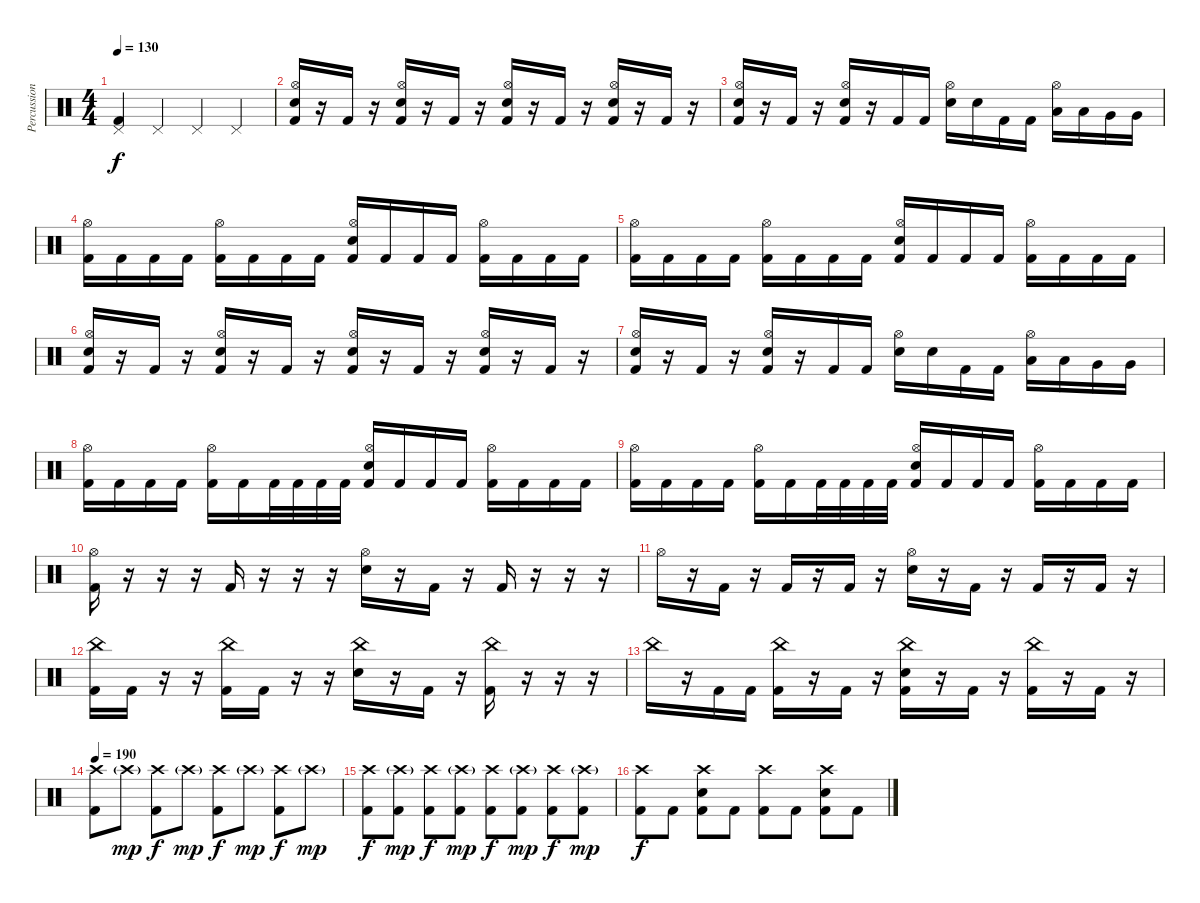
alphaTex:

\track ("Percussion" "Percussion") {instrument percussion}
\staff {score}
\articulation defaults
\ts (4 4)
\tempo 130
\clef neutral
\ks c
("Pedal Hi-Hat (hit)" "Kick (hit) 2").4{dy f} "Pedal Hi-Hat (hit)".4 "Pedal Hi-Hat (hit)".4 "Pedal Hi-Hat (hit)".4 |
("Hi-Hat (open)" "Snare (hit) 2" "Kick (hit) 2").16 r.16 "Kick (hit) 2".16 r.16 ("Hi-Hat (open)" "Snare (hit) 2" "Kick (hit) 2").16 r.16 "Kick (hit) 2".16 r.16 ("Hi-Hat (open)" "Snare (hit) 2" "Kick (hit) 2").16 r.16 "Kick (hit) 2".16 r.16 ("Hi-Hat (open)" "Snare (hit) 2" "Kick (hit) 2").16 r.16 "Kick (hit) 2".16 r.16 |
("Hi-Hat (open)" "Snare (hit) 2" "Kick (hit) 2").16 r.16 "Kick (hit) 2".16 r.16 ("Hi-Hat (open)" "Snare (hit) 2" "Kick (hit) 2").16 r.16 "Kick (hit) 2".16 "Kick (hit) 2".16 ("Hi-Hat (open)" "Snare (hit) 2").16 "Snare (hit) 2".16 "Kick (hit) 2".16 "Kick (hit) 2".16 ("Hi-Hat (open)" "Low Tom (hit)").16 "Low Tom (hit)".16 "Very Low Tom (hit)".16 "Very Low Tom (hit)".16 |
("Hi-Hat (open)" "Kick (hit) 2").16 "Kick (hit) 2".16 "Kick (hit) 2".16 "Kick (hit) 2".16 ("Hi-Hat (open)" "Kick (hit) 2").16 "Kick (hit) 2".16 "Kick (hit) 2".16 "Kick (hit) 2".16 ("Hi-Hat (open)" "Snare (hit) 2" "Kick (hit) 2").16 "Kick (hit) 2".16 "Kick (hit) 2".16 "Kick (hit) 2".16 ("Hi-Hat (open)" "Kick (hit) 2").16 "Kick (hit) 2".16 "Kick (hit) 2".16 "Kick (hit) 2".16 |
("Hi-Hat (open)" "Kick (hit) 2").16 "Kick (hit) 2".16 "Kick (hit) 2".16 "Kick (hit) 2".16 ("Hi-Hat (open)" "Kick (hit) 2").16 "Kick (hit) 2".16 "Kick (hit) 2".16 "Kick (hit) 2".16 ("Hi-Hat (open)" "Snare (hit) 2" "Kick (hit) 2").16 "Kick (hit) 2".16 "Kick (hit) 2".16 "Kick (hit) 2".16 ("Hi-Hat (open)" "Kick (hit) 2").16 "Kick (hit) 2".16 "Kick (hit) 2".16 "Kick (hit) 2".16 |
("Hi-Hat (open)" "Snare (hit) 2" "Kick (hit) 2").16 r.16 "Kick (hit) 2".16 r.16 ("Hi-Hat (open)" "Snare (hit) 2" "Kick (hit) 2").16 r.16 "Kick (hit) 2".16 r.16 ("Hi-Hat (open)" "Snare (hit) 2" "Kick (hit) 2").16 r.16 "Kick (hit) 2".16 r.16 ("Hi-Hat (open)" "Snare (hit) 2" "Kick (hit) 2").16 r.16 "Kick (hit) 2".16 r.16 |
("Hi-Hat (open)" "Snare (hit) 2" "Kick (hit) 2").16 r.16 "Kick (hit) 2".16 r.16 ("Hi-Hat (open)" "Snare (hit) 2" "Kick (hit) 2").16 r.16 "Kick (hit) 2".16 "Kick (hit) 2".16 ("Hi-Hat (open)" "Snare (hit) 2").16 "Snare (hit) 2".16 "Kick (hit) 2".16 "Kick (hit) 2".16 ("Hi-Hat (open)" "Low Tom (hit)").16 "Low Tom (hit)".16 "Very Low Tom (hit)".16 "Very Low Tom (hit)".16 |
("Hi-Hat (open)" "Kick (hit) 2").16 "Kick (hit) 2".16 "Kick (hit) 2".16 "Kick (hit) 2".16 ("Hi-Hat (open)" "Kick (hit) 2").16 "Kick (hit) 2".16 "Kick (hit) 2".32 "Kick (hit) 2".32 "Kick (hit) 2".32 "Kick (hit) 2".32 ("Hi-Hat (open)" "Snare (hit) 2" "Kick (hit) 2").16 "Kick (hit) 2".16 "Kick (hit) 2".16 "Kick (hit) 2".16 ("Hi-Hat (open)" "Kick (hit) 2").16 "Kick (hit) 2".16 "Kick (hit) 2".16 "Kick (hit) 2".16 |
("Hi-Hat (open)" "Kick (hit) 2").16 "Kick (hit) 2".16 "Kick (hit) 2".16 "Kick (hit) 2".16 ("Hi-Hat (open)" "Kick (hit) 2").16 "Kick (hit) 2".16 "Kick (hit) 2".32 "Kick (hit) 2".32 "Kick (hit) 2".32 "Kick (hit) 2".32 ("Hi-Hat (open)" "Snare (hit) 2" "Kick (hit) 2").16 "Kick (hit) 2".16 "Kick (hit) 2".16 "Kick (hit) 2".16 ("Hi-Hat (open)" "Kick (hit) 2").16 "Kick (hit) 2".16 "Kick (hit) 2".16 "Kick (hit) 2".16 |
("Hi-Hat (open)" "Kick (hit) 2").16 r.16 r.16 r.16 "Kick (hit) 2".16 r.16 r.16 r.16 ("Hi-Hat (open)" "Snare (hit) 2").16 r.16 "Kick (hit) 2".16 r.16 "Kick (hit) 2".16 r.16 r.16 r.16 |
"Hi-Hat (open)".16 r.16 "Kick (hit) 2".16 r.16 "Kick (hit) 2".16 r.16 "Kick (hit) 2".16 r.16 ("Hi-Hat (open)" "Snare (hit) 2").16 r.16 "Kick (hit) 2".16 r.16 "Kick (hit) 2".16 r.16 "Kick (hit) 2".16 r.16 |
("China (hit)" "Kick (hit) 2").16 "Kick (hit) 2".16 r.16 r.16 ("China (hit)" "Kick (hit) 2").16 "Kick (hit) 2".16 r.16 r.16 ("China (hit)" "Snare (hit) 2").16 r.16 "Kick (hit) 2".16 r.16 ("China (hit)" "Kick (hit) 2").16 r.16 r.16 r.16 |
"China (hit)".16 r.16 "Kick (hit) 2".16 "Kick (hit) 2".16 ("China (hit)" "Kick (hit) 2").16 r.16 "Kick (hit) 2".16 r.16 ("China (hit)" "Snare (hit) 2" "Kick (hit) 2").16 r.16 "Kick (hit) 2".16 r.16 ("China (hit)" "Kick (hit) 2").16 r.16 "Kick (hit) 2".16 r.16 |
\tempo 190
("Crash high (hit)" "Kick (hit) 2").8 "Crash high (hit)"{g}.8{dy mp} ("Crash high (hit)" "Kick (hit) 2").8{dy f} "Crash high (hit)"{g}.8{dy mp} ("Crash high (hit)" "Kick (hit) 2").8{dy f} "Crash high (hit)"{g}.8{dy mp} ("Crash high (hit)" "Kick (hit) 2").8{dy f} "Crash high (hit)"{g}.8{dy mp} |
("Crash high (hit)" "Kick (hit) 2").8{dy f} ("Crash high (hit)"{g} "Kick (hit) 2").8{dy mp} ("Crash high (hit)" "Kick (hit) 2").8{dy f} ("Crash high (hit)"{g} "Kick (hit) 2").8{dy mp} ("Crash high (hit)" "Kick (hit) 2").8{dy f} ("Crash high (hit)"{g} "Kick (hit) 2").8{dy mp} ("Crash high (hit)" "Kick (hit) 2").8{dy f} ("Crash high (hit)"{g} "Kick (hit) 2").8{dy mp} |
("Crash high (hit)" "Kick (hit) 2").8{dy f} "Kick (hit) 2".8 ("Crash high (hit)" "Snare (hit) 2" "Kick (hit) 2").8 "Kick (hit) 2".8 ("Crash high (hit)" "Kick (hit) 2").8 "Kick (hit) 2".8 ("Crash high (hit)" "Snare (hit) 2" "Kick (hit) 2").8 "Kick (hit) 2".8
